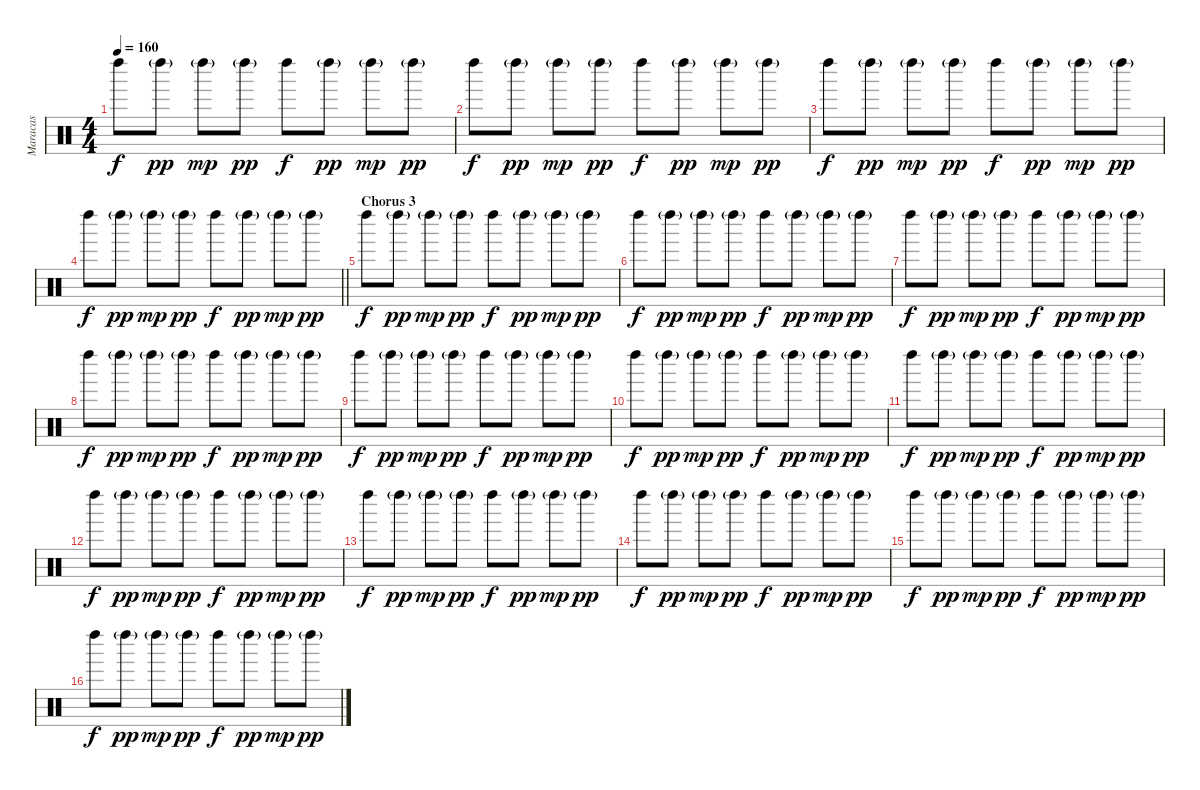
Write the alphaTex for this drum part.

\track ("Maracas" "Maracas") {instrument percussion}
\staff {score}
\articulation defaults
\ts (4 4)
\tempo 160
\clef neutral
\ks c "Left Maraca (hit)".8{dy f} "Left Maraca (hit)"{g}.8{dy pp} "Left Maraca (hit)"{g}.8{dy mp} "Left Maraca (hit)"{g}.8{dy pp} "Left Maraca (hit)".8{dy f} "Left Maraca (hit)"{g}.8{dy pp} "Left Maraca (hit)"{g}.8{dy mp} "Left Maraca (hit)"{g}.8{dy pp}
|
"Left Maraca (hit)".8{dy f} "Left Maraca (hit)"{g}.8{dy pp} "Left Maraca (hit)"{g}.8{dy mp} "Left Maraca (hit)"{g}.8{dy pp} "Left Maraca (hit)".8{dy f} "Left Maraca (hit)"{g}.8{dy pp} "Left Maraca (hit)"{g}.8{dy mp} "Left Maraca (hit)"{g}.8{dy pp} |
"Left Maraca (hit)".8{dy f} "Left Maraca (hit)"{g}.8{dy pp} "Left Maraca (hit)"{g}.8{dy mp} "Left Maraca (hit)"{g}.8{dy pp} "Left Maraca (hit)".8{dy f} "Left Maraca (hit)"{g}.8{dy pp} "Left Maraca (hit)"{g}.8{dy mp} "Left Maraca (hit)"{g}.8{dy pp} |
\barLineRight lightlight "Left Maraca (hit)".8{dy f} "Left Maraca (hit)"{g}.8{dy pp} "Left Maraca (hit)"{g}.8{dy mp} "Left Maraca (hit)"{g}.8{dy pp} "Left Maraca (hit)".8{dy f} "Left Maraca (hit)"{g}.8{dy pp} "Left Maraca (hit)"{g}.8{dy mp} "Left Maraca (hit)"{g}.8{dy pp}
|
\section ("" "Chorus 3")
"Left Maraca (hit)".8{dy f} "Left Maraca (hit)"{g}.8{dy pp} "Left Maraca (hit)"{g}.8{dy mp} "Left Maraca (hit)"{g}.8{dy pp} "Left Maraca (hit)".8{dy f} "Left Maraca (hit)"{g}.8{dy pp} "Left Maraca (hit)"{g}.8{dy mp} "Left Maraca (hit)"{g}.8{dy pp} |
"Left Maraca (hit)".8{dy f} "Left Maraca (hit)"{g}.8{dy pp} "Left Maraca (hit)"{g}.8{dy mp} "Left Maraca (hit)"{g}.8{dy pp} "Left Maraca (hit)".8{dy f} "Left Maraca (hit)"{g}.8{dy pp} "Left Maraca (hit)"{g}.8{dy mp} "Left Maraca (hit)"{g}.8{dy pp} |
"Left Maraca (hit)".8{dy f} "Left Maraca (hit)"{g}.8{dy pp} "Left Maraca (hit)"{g}.8{dy mp} "Left Maraca (hit)"{g}.8{dy pp} "Left Maraca (hit)".8{dy f} "Left Maraca (hit)"{g}.8{dy pp} "Left Maraca (hit)"{g}.8{dy mp} "Left Maraca (hit)"{g}.8{dy pp} |
"Left Maraca (hit)".8{dy f} "Left Maraca (hit)"{g}.8{dy pp} "Left Maraca (hit)"{g}.8{dy mp} "Left Maraca (hit)"{g}.8{dy pp} "Left Maraca (hit)".8{dy f} "Left Maraca (hit)"{g}.8{dy pp} "Left Maraca (hit)"{g}.8{dy mp} "Left Maraca (hit)"{g}.8{dy pp} |
"Left Maraca (hit)".8{dy f} "Left Maraca (hit)"{g}.8{dy pp} "Left Maraca (hit)"{g}.8{dy mp} "Left Maraca (hit)"{g}.8{dy pp} "Left Maraca (hit)".8{dy f} "Left Maraca (hit)"{g}.8{dy pp} "Left Maraca (hit)"{g}.8{dy mp} "Left Maraca (hit)"{g}.8{dy pp} |
"Left Maraca (hit)".8{dy f} "Left Maraca (hit)"{g}.8{dy pp} "Left Maraca (hit)"{g}.8{dy mp} "Left Maraca (hit)"{g}.8{dy pp} "Left Maraca (hit)".8{dy f} "Left Maraca (hit)"{g}.8{dy pp} "Left Maraca (hit)"{g}.8{dy mp} "Left Maraca (hit)"{g}.8{dy pp} |
"Left Maraca (hit)".8{dy f} "Left Maraca (hit)"{g}.8{dy pp} "Left Maraca (hit)"{g}.8{dy mp} "Left Maraca (hit)"{g}.8{dy pp} "Left Maraca (hit)".8{dy f} "Left Maraca (hit)"{g}.8{dy pp} "Left Maraca (hit)"{g}.8{dy mp} "Left Maraca (hit)"{g}.8{dy pp} |
"Left Maraca (hit)".8{dy f} "Left Maraca (hit)"{g}.8{dy pp} "Left Maraca (hit)"{g}.8{dy mp} "Left Maraca (hit)"{g}.8{dy pp} "Left Maraca (hit)".8{dy f} "Left Maraca (hit)"{g}.8{dy pp} "Left Maraca (hit)"{g}.8{dy mp} "Left Maraca (hit)"{g}.8{dy pp} |
"Left Maraca (hit)".8{dy f} "Left Maraca (hit)"{g}.8{dy pp} "Left Maraca (hit)"{g}.8{dy mp} "Left Maraca (hit)"{g}.8{dy pp} "Left Maraca (hit)".8{dy f} "Left Maraca (hit)"{g}.8{dy pp} "Left Maraca (hit)"{g}.8{dy mp} "Left Maraca (hit)"{g}.8{dy pp} |
"Left Maraca (hit)".8{dy f} "Left Maraca (hit)"{g}.8{dy pp} "Left Maraca (hit)"{g}.8{dy mp} "Left Maraca (hit)"{g}.8{dy pp} "Left Maraca (hit)".8{dy f} "Left Maraca (hit)"{g}.8{dy pp} "Left Maraca (hit)"{g}.8{dy mp} "Left Maraca (hit)"{g}.8{dy pp} |
"Left Maraca (hit)".8{dy f} "Left Maraca (hit)"{g}.8{dy pp} "Left Maraca (hit)"{g}.8{dy mp} "Left Maraca (hit)"{g}.8{dy pp} "Left Maraca (hit)".8{dy f} "Left Maraca (hit)"{g}.8{dy pp} "Left Maraca (hit)"{g}.8{dy mp} "Left Maraca (hit)"{g}.8{dy pp} |
"Left Maraca (hit)".8{dy f} "Left Maraca (hit)"{g}.8{dy pp} "Left Maraca (hit)"{g}.8{dy mp} "Left Maraca (hit)"{g}.8{dy pp} "Left Maraca (hit)".8{dy f} "Left Maraca (hit)"{g}.8{dy pp} "Left Maraca (hit)"{g}.8{dy mp} "Left Maraca (hit)"{g}.8{dy pp}
